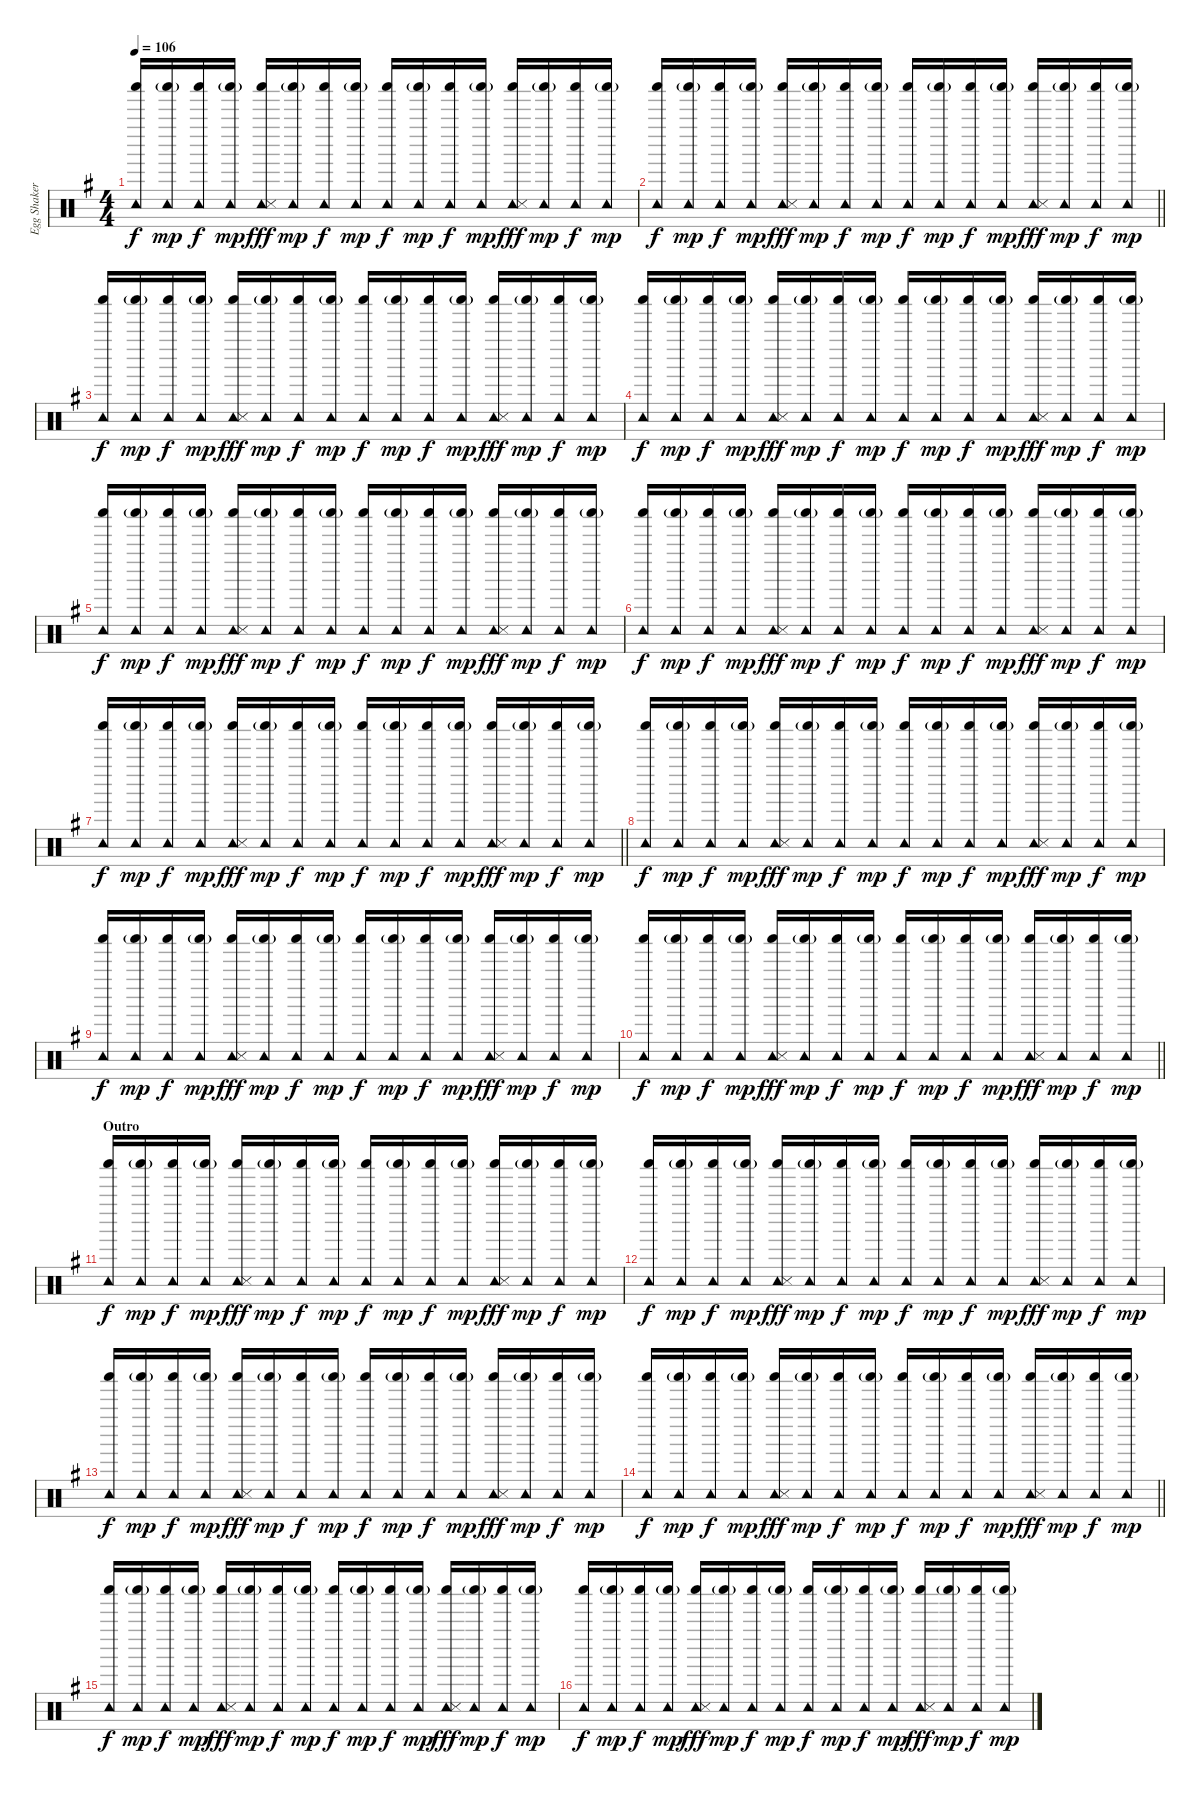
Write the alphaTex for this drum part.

\track ("Egg Shaker and Tambourine" "Egg Shaker") {instrument percussion}
\staff {score}
\articulation defaults
\ts (4 4)
\tempo 106
\clef neutral
\ks eminor
("Tambourine (hit)" "Shaker (hit)").16{dy f beam Up} ("Tambourine (hit)" "Shaker (hit)"{g}).16{dy mp beam Up} ("Tambourine (hit)" "Shaker (hit)").16{dy f beam Up} ("Tambourine (hit)" "Shaker (hit)"{g}).16{dy mp beam Up} ("Tambourine (hit)" "Shaker (hit)" "Snare (side stick) 3").16{dy fff beam Up} ("Tambourine (hit)" "Shaker (hit)"{g}).16{dy mp beam Up} ("Tambourine (hit)" "Shaker (hit)").16{dy f beam Up} ("Tambourine (hit)" "Shaker (hit)"{g}).16{dy mp beam Up} ("Tambourine (hit)" "Shaker (hit)").16{dy f beam Up} ("Tambourine (hit)" "Shaker (hit)"{g}).16{dy mp beam Up} ("Tambourine (hit)" "Shaker (hit)").16{dy f beam Up} ("Tambourine (hit)" "Shaker (hit)"{g}).16{dy mp beam Up} ("Tambourine (hit)" "Shaker (hit)" "Snare (side stick) 3").16{dy fff beam Up} ("Tambourine (hit)" "Shaker (hit)"{g}).16{dy mp beam Up} ("Tambourine (hit)" "Shaker (hit)").16{dy f beam Up} ("Tambourine (hit)" "Shaker (hit)"{g}).16{dy mp beam Up} |
\barLineRight lightlight
("Tambourine (hit)" "Shaker (hit)").16{dy f beam Up} ("Tambourine (hit)" "Shaker (hit)"{g}).16{dy mp beam Up} ("Tambourine (hit)" "Shaker (hit)").16{dy f beam Up} ("Tambourine (hit)" "Shaker (hit)"{g}).16{dy mp beam Up} ("Tambourine (hit)" "Shaker (hit)" "Snare (side stick) 3").16{dy fff beam Up} ("Tambourine (hit)" "Shaker (hit)"{g}).16{dy mp beam Up} ("Tambourine (hit)" "Shaker (hit)").16{dy f beam Up} ("Tambourine (hit)" "Shaker (hit)"{g}).16{dy mp beam Up} ("Tambourine (hit)" "Shaker (hit)").16{dy f beam Up} ("Tambourine (hit)" "Shaker (hit)"{g}).16{dy mp beam Up} ("Tambourine (hit)" "Shaker (hit)").16{dy f beam Up} ("Tambourine (hit)" "Shaker (hit)"{g}).16{dy mp beam Up} ("Tambourine (hit)" "Shaker (hit)" "Snare (side stick) 3").16{dy fff beam Up} ("Tambourine (hit)" "Shaker (hit)"{g}).16{dy mp beam Up} ("Tambourine (hit)" "Shaker (hit)").16{dy f beam Up} ("Tambourine (hit)" "Shaker (hit)"{g}).16{dy mp beam Up} |
("Tambourine (hit)" "Shaker (hit)").16{dy f beam Up} ("Tambourine (hit)" "Shaker (hit)"{g}).16{dy mp beam Up} ("Tambourine (hit)" "Shaker (hit)").16{dy f beam Up} ("Tambourine (hit)" "Shaker (hit)"{g}).16{dy mp beam Up} ("Tambourine (hit)" "Shaker (hit)" "Snare (side stick) 3").16{dy fff beam Up} ("Tambourine (hit)" "Shaker (hit)"{g}).16{dy mp beam Up} ("Tambourine (hit)" "Shaker (hit)").16{dy f beam Up} ("Tambourine (hit)" "Shaker (hit)"{g}).16{dy mp beam Up} ("Tambourine (hit)" "Shaker (hit)").16{dy f beam Up} ("Tambourine (hit)" "Shaker (hit)"{g}).16{dy mp beam Up} ("Tambourine (hit)" "Shaker (hit)").16{dy f beam Up} ("Tambourine (hit)" "Shaker (hit)"{g}).16{dy mp beam Up} ("Tambourine (hit)" "Shaker (hit)" "Snare (side stick) 3").16{dy fff beam Up} ("Tambourine (hit)" "Shaker (hit)"{g}).16{dy mp beam Up} ("Tambourine (hit)" "Shaker (hit)").16{dy f beam Up} ("Tambourine (hit)" "Shaker (hit)"{g}).16{dy mp beam Up} |
("Tambourine (hit)" "Shaker (hit)").16{dy f beam Up} ("Tambourine (hit)" "Shaker (hit)"{g}).16{dy mp beam Up} ("Tambourine (hit)" "Shaker (hit)").16{dy f beam Up} ("Tambourine (hit)" "Shaker (hit)"{g}).16{dy mp beam Up} ("Tambourine (hit)" "Shaker (hit)" "Snare (side stick) 3").16{dy fff beam Up} ("Tambourine (hit)" "Shaker (hit)"{g}).16{dy mp beam Up} ("Tambourine (hit)" "Shaker (hit)").16{dy f beam Up} ("Tambourine (hit)" "Shaker (hit)"{g}).16{dy mp beam Up} ("Tambourine (hit)" "Shaker (hit)").16{dy f beam Up} ("Tambourine (hit)" "Shaker (hit)"{g}).16{dy mp beam Up} ("Tambourine (hit)" "Shaker (hit)").16{dy f beam Up} ("Tambourine (hit)" "Shaker (hit)"{g}).16{dy mp beam Up} ("Tambourine (hit)" "Shaker (hit)" "Snare (side stick) 3").16{dy fff beam Up} ("Tambourine (hit)" "Shaker (hit)"{g}).16{dy mp beam Up} ("Tambourine (hit)" "Shaker (hit)").16{dy f beam Up} ("Tambourine (hit)" "Shaker (hit)"{g}).16{dy mp beam Up} |
("Tambourine (hit)" "Shaker (hit)").16{dy f beam Up} ("Tambourine (hit)" "Shaker (hit)"{g}).16{dy mp beam Up} ("Tambourine (hit)" "Shaker (hit)").16{dy f beam Up} ("Tambourine (hit)" "Shaker (hit)"{g}).16{dy mp beam Up} ("Tambourine (hit)" "Shaker (hit)" "Snare (side stick) 3").16{dy fff beam Up} ("Tambourine (hit)" "Shaker (hit)"{g}).16{dy mp beam Up} ("Tambourine (hit)" "Shaker (hit)").16{dy f beam Up} ("Tambourine (hit)" "Shaker (hit)"{g}).16{dy mp beam Up} ("Tambourine (hit)" "Shaker (hit)").16{dy f beam Up} ("Tambourine (hit)" "Shaker (hit)"{g}).16{dy mp beam Up} ("Tambourine (hit)" "Shaker (hit)").16{dy f beam Up} ("Tambourine (hit)" "Shaker (hit)"{g}).16{dy mp beam Up} ("Tambourine (hit)" "Shaker (hit)" "Snare (side stick) 3").16{dy fff beam Up} ("Tambourine (hit)" "Shaker (hit)"{g}).16{dy mp beam Up} ("Tambourine (hit)" "Shaker (hit)").16{dy f beam Up} ("Tambourine (hit)" "Shaker (hit)"{g}).16{dy mp beam Up} |
("Tambourine (hit)" "Shaker (hit)").16{dy f beam Up} ("Tambourine (hit)" "Shaker (hit)"{g}).16{dy mp beam Up} ("Tambourine (hit)" "Shaker (hit)").16{dy f beam Up} ("Tambourine (hit)" "Shaker (hit)"{g}).16{dy mp beam Up} ("Tambourine (hit)" "Shaker (hit)" "Snare (side stick) 3").16{dy fff beam Up} ("Tambourine (hit)" "Shaker (hit)"{g}).16{dy mp beam Up} ("Tambourine (hit)" "Shaker (hit)").16{dy f beam Up} ("Tambourine (hit)" "Shaker (hit)"{g}).16{dy mp beam Up} ("Tambourine (hit)" "Shaker (hit)").16{dy f beam Up} ("Tambourine (hit)" "Shaker (hit)"{g}).16{dy mp beam Up} ("Tambourine (hit)" "Shaker (hit)").16{dy f beam Up} ("Tambourine (hit)" "Shaker (hit)"{g}).16{dy mp beam Up} ("Tambourine (hit)" "Shaker (hit)" "Snare (side stick) 3").16{dy fff beam Up} ("Tambourine (hit)" "Shaker (hit)"{g}).16{dy mp beam Up} ("Tambourine (hit)" "Shaker (hit)").16{dy f beam Up} ("Tambourine (hit)" "Shaker (hit)"{g}).16{dy mp beam Up} |
\barLineRight lightlight
("Tambourine (hit)" "Shaker (hit)").16{dy f beam Up} ("Tambourine (hit)" "Shaker (hit)"{g}).16{dy mp beam Up} ("Tambourine (hit)" "Shaker (hit)").16{dy f beam Up} ("Tambourine (hit)" "Shaker (hit)"{g}).16{dy mp beam Up} ("Tambourine (hit)" "Shaker (hit)" "Snare (side stick) 3").16{dy fff beam Up} ("Tambourine (hit)" "Shaker (hit)"{g}).16{dy mp beam Up} ("Tambourine (hit)" "Shaker (hit)").16{dy f beam Up} ("Tambourine (hit)" "Shaker (hit)"{g}).16{dy mp beam Up} ("Tambourine (hit)" "Shaker (hit)").16{dy f beam Up} ("Tambourine (hit)" "Shaker (hit)"{g}).16{dy mp beam Up} ("Tambourine (hit)" "Shaker (hit)").16{dy f beam Up} ("Tambourine (hit)" "Shaker (hit)"{g}).16{dy mp beam Up} ("Tambourine (hit)" "Shaker (hit)" "Snare (side stick) 3").16{dy fff beam Up} ("Tambourine (hit)" "Shaker (hit)"{g}).16{dy mp beam Up} ("Tambourine (hit)" "Shaker (hit)").16{dy f beam Up} ("Tambourine (hit)" "Shaker (hit)"{g}).16{dy mp beam Up} |
("Tambourine (hit)" "Shaker (hit)").16{dy f beam Up} ("Tambourine (hit)" "Shaker (hit)"{g}).16{dy mp beam Up} ("Tambourine (hit)" "Shaker (hit)").16{dy f beam Up} ("Tambourine (hit)" "Shaker (hit)"{g}).16{dy mp beam Up} ("Tambourine (hit)" "Shaker (hit)" "Snare (side stick) 3").16{dy fff beam Up} ("Tambourine (hit)" "Shaker (hit)"{g}).16{dy mp beam Up} ("Tambourine (hit)" "Shaker (hit)").16{dy f beam Up} ("Tambourine (hit)" "Shaker (hit)"{g}).16{dy mp beam Up} ("Tambourine (hit)" "Shaker (hit)").16{dy f beam Up} ("Tambourine (hit)" "Shaker (hit)"{g}).16{dy mp beam Up} ("Tambourine (hit)" "Shaker (hit)").16{dy f beam Up} ("Tambourine (hit)" "Shaker (hit)"{g}).16{dy mp beam Up} ("Tambourine (hit)" "Shaker (hit)" "Snare (side stick) 3").16{dy fff beam Up} ("Tambourine (hit)" "Shaker (hit)"{g}).16{dy mp beam Up} ("Tambourine (hit)" "Shaker (hit)").16{dy f beam Up} ("Tambourine (hit)" "Shaker (hit)"{g}).16{dy mp beam Up} |
("Tambourine (hit)" "Shaker (hit)").16{dy f beam Up} ("Tambourine (hit)" "Shaker (hit)"{g}).16{dy mp beam Up} ("Tambourine (hit)" "Shaker (hit)").16{dy f beam Up} ("Tambourine (hit)" "Shaker (hit)"{g}).16{dy mp beam Up} ("Tambourine (hit)" "Shaker (hit)" "Snare (side stick) 3").16{dy fff beam Up} ("Tambourine (hit)" "Shaker (hit)"{g}).16{dy mp beam Up} ("Tambourine (hit)" "Shaker (hit)").16{dy f beam Up} ("Tambourine (hit)" "Shaker (hit)"{g}).16{dy mp beam Up} ("Tambourine (hit)" "Shaker (hit)").16{dy f beam Up} ("Tambourine (hit)" "Shaker (hit)"{g}).16{dy mp beam Up} ("Tambourine (hit)" "Shaker (hit)").16{dy f beam Up} ("Tambourine (hit)" "Shaker (hit)"{g}).16{dy mp beam Up} ("Tambourine (hit)" "Shaker (hit)" "Snare (side stick) 3").16{dy fff beam Up} ("Tambourine (hit)" "Shaker (hit)"{g}).16{dy mp beam Up} ("Tambourine (hit)" "Shaker (hit)").16{dy f beam Up} ("Tambourine (hit)" "Shaker (hit)"{g}).16{dy mp beam Up} |
\barLineRight lightlight
("Tambourine (hit)" "Shaker (hit)").16{dy f beam Up} ("Tambourine (hit)" "Shaker (hit)"{g}).16{dy mp beam Up} ("Tambourine (hit)" "Shaker (hit)").16{dy f beam Up} ("Tambourine (hit)" "Shaker (hit)"{g}).16{dy mp beam Up} ("Tambourine (hit)" "Shaker (hit)" "Snare (side stick) 3").16{dy fff beam Up} ("Tambourine (hit)" "Shaker (hit)"{g}).16{dy mp beam Up} ("Tambourine (hit)" "Shaker (hit)").16{dy f beam Up} ("Tambourine (hit)" "Shaker (hit)"{g}).16{dy mp beam Up} ("Tambourine (hit)" "Shaker (hit)").16{dy f beam Up} ("Tambourine (hit)" "Shaker (hit)"{g}).16{dy mp beam Up} ("Tambourine (hit)" "Shaker (hit)").16{dy f beam Up} ("Tambourine (hit)" "Shaker (hit)"{g}).16{dy mp beam Up} ("Tambourine (hit)" "Shaker (hit)" "Snare (side stick) 3").16{dy fff beam Up} ("Tambourine (hit)" "Shaker (hit)"{g}).16{dy mp beam Up} ("Tambourine (hit)" "Shaker (hit)").16{dy f beam Up} ("Tambourine (hit)" "Shaker (hit)"{g}).16{dy mp beam Up} |
\section ("" "Outro")
("Tambourine (hit)" "Shaker (hit)").16{dy f beam Up} ("Tambourine (hit)" "Shaker (hit)"{g}).16{dy mp beam Up} ("Tambourine (hit)" "Shaker (hit)").16{dy f beam Up} ("Tambourine (hit)" "Shaker (hit)"{g}).16{dy mp beam Up} ("Tambourine (hit)" "Shaker (hit)" "Snare (side stick) 3").16{dy fff beam Up} ("Tambourine (hit)" "Shaker (hit)"{g}).16{dy mp beam Up} ("Tambourine (hit)" "Shaker (hit)").16{dy f beam Up} ("Tambourine (hit)" "Shaker (hit)"{g}).16{dy mp beam Up} ("Tambourine (hit)" "Shaker (hit)").16{dy f beam Up} ("Tambourine (hit)" "Shaker (hit)"{g}).16{dy mp beam Up} ("Tambourine (hit)" "Shaker (hit)").16{dy f beam Up} ("Tambourine (hit)" "Shaker (hit)"{g}).16{dy mp beam Up} ("Tambourine (hit)" "Shaker (hit)" "Snare (side stick) 3").16{dy fff beam Up} ("Tambourine (hit)" "Shaker (hit)"{g}).16{dy mp beam Up} ("Tambourine (hit)" "Shaker (hit)").16{dy f beam Up} ("Tambourine (hit)" "Shaker (hit)"{g}).16{dy mp beam Up} |
("Tambourine (hit)" "Shaker (hit)").16{dy f beam Up} ("Tambourine (hit)" "Shaker (hit)"{g}).16{dy mp beam Up} ("Tambourine (hit)" "Shaker (hit)").16{dy f beam Up} ("Tambourine (hit)" "Shaker (hit)"{g}).16{dy mp beam Up} ("Tambourine (hit)" "Shaker (hit)" "Snare (side stick) 3").16{dy fff beam Up} ("Tambourine (hit)" "Shaker (hit)"{g}).16{dy mp beam Up} ("Tambourine (hit)" "Shaker (hit)").16{dy f beam Up} ("Tambourine (hit)" "Shaker (hit)"{g}).16{dy mp beam Up} ("Tambourine (hit)" "Shaker (hit)").16{dy f beam Up} ("Tambourine (hit)" "Shaker (hit)"{g}).16{dy mp beam Up} ("Tambourine (hit)" "Shaker (hit)").16{dy f beam Up} ("Tambourine (hit)" "Shaker (hit)"{g}).16{dy mp beam Up} ("Tambourine (hit)" "Shaker (hit)" "Snare (side stick) 3").16{dy fff beam Up} ("Tambourine (hit)" "Shaker (hit)"{g}).16{dy mp beam Up} ("Tambourine (hit)" "Shaker (hit)").16{dy f beam Up} ("Tambourine (hit)" "Shaker (hit)"{g}).16{dy mp beam Up} |
("Tambourine (hit)" "Shaker (hit)").16{dy f beam Up} ("Tambourine (hit)" "Shaker (hit)"{g}).16{dy mp beam Up} ("Tambourine (hit)" "Shaker (hit)").16{dy f beam Up} ("Tambourine (hit)" "Shaker (hit)"{g}).16{dy mp beam Up} ("Tambourine (hit)" "Shaker (hit)" "Snare (side stick) 3").16{dy fff beam Up} ("Tambourine (hit)" "Shaker (hit)"{g}).16{dy mp beam Up} ("Tambourine (hit)" "Shaker (hit)").16{dy f beam Up} ("Tambourine (hit)" "Shaker (hit)"{g}).16{dy mp beam Up} ("Tambourine (hit)" "Shaker (hit)").16{dy f beam Up} ("Tambourine (hit)" "Shaker (hit)"{g}).16{dy mp beam Up} ("Tambourine (hit)" "Shaker (hit)").16{dy f beam Up} ("Tambourine (hit)" "Shaker (hit)"{g}).16{dy mp beam Up} ("Tambourine (hit)" "Shaker (hit)" "Snare (side stick) 3").16{dy fff beam Up} ("Tambourine (hit)" "Shaker (hit)"{g}).16{dy mp beam Up} ("Tambourine (hit)" "Shaker (hit)").16{dy f beam Up} ("Tambourine (hit)" "Shaker (hit)"{g}).16{dy mp beam Up} |
\barLineRight lightlight
("Tambourine (hit)" "Shaker (hit)").16{dy f beam Up} ("Tambourine (hit)" "Shaker (hit)"{g}).16{dy mp beam Up} ("Tambourine (hit)" "Shaker (hit)").16{dy f beam Up} ("Tambourine (hit)" "Shaker (hit)"{g}).16{dy mp beam Up} ("Tambourine (hit)" "Shaker (hit)" "Snare (side stick) 3").16{dy fff beam Up} ("Tambourine (hit)" "Shaker (hit)"{g}).16{dy mp beam Up} ("Tambourine (hit)" "Shaker (hit)").16{dy f beam Up} ("Tambourine (hit)" "Shaker (hit)"{g}).16{dy mp beam Up} ("Tambourine (hit)" "Shaker (hit)").16{dy f beam Up} ("Tambourine (hit)" "Shaker (hit)"{g}).16{dy mp beam Up} ("Tambourine (hit)" "Shaker (hit)").16{dy f beam Up} ("Tambourine (hit)" "Shaker (hit)"{g}).16{dy mp beam Up} ("Tambourine (hit)" "Shaker (hit)" "Snare (side stick) 3").16{dy fff beam Up} ("Tambourine (hit)" "Shaker (hit)"{g}).16{dy mp beam Up} ("Tambourine (hit)" "Shaker (hit)").16{dy f beam Up} ("Tambourine (hit)" "Shaker (hit)"{g}).16{dy mp beam Up} |
("Tambourine (hit)" "Shaker (hit)").16{dy f beam Up} ("Tambourine (hit)" "Shaker (hit)"{g}).16{dy mp beam Up} ("Tambourine (hit)" "Shaker (hit)").16{dy f beam Up} ("Tambourine (hit)" "Shaker (hit)"{g}).16{dy mp beam Up} ("Tambourine (hit)" "Shaker (hit)" "Snare (side stick) 3").16{dy fff beam Up} ("Tambourine (hit)" "Shaker (hit)"{g}).16{dy mp beam Up} ("Tambourine (hit)" "Shaker (hit)").16{dy f beam Up} ("Tambourine (hit)" "Shaker (hit)"{g}).16{dy mp beam Up} ("Tambourine (hit)" "Shaker (hit)").16{dy f beam Up} ("Tambourine (hit)" "Shaker (hit)"{g}).16{dy mp beam Up} ("Tambourine (hit)" "Shaker (hit)").16{dy f beam Up} ("Tambourine (hit)" "Shaker (hit)"{g}).16{dy mp beam Up} ("Tambourine (hit)" "Shaker (hit)" "Snare (side stick) 3").16{dy fff beam Up} ("Tambourine (hit)" "Shaker (hit)"{g}).16{dy mp beam Up} ("Tambourine (hit)" "Shaker (hit)").16{dy f beam Up} ("Tambourine (hit)" "Shaker (hit)"{g}).16{dy mp beam Up} |
("Tambourine (hit)" "Shaker (hit)").16{dy f beam Up} ("Tambourine (hit)" "Shaker (hit)"{g}).16{dy mp beam Up} ("Tambourine (hit)" "Shaker (hit)").16{dy f beam Up} ("Tambourine (hit)" "Shaker (hit)"{g}).16{dy mp beam Up} ("Tambourine (hit)" "Shaker (hit)" "Snare (side stick) 3").16{dy fff beam Up} ("Tambourine (hit)" "Shaker (hit)"{g}).16{dy mp beam Up} ("Tambourine (hit)" "Shaker (hit)").16{dy f beam Up} ("Tambourine (hit)" "Shaker (hit)"{g}).16{dy mp beam Up} ("Tambourine (hit)" "Shaker (hit)").16{dy f beam Up} ("Tambourine (hit)" "Shaker (hit)"{g}).16{dy mp beam Up} ("Tambourine (hit)" "Shaker (hit)").16{dy f beam Up} ("Tambourine (hit)" "Shaker (hit)"{g}).16{dy mp beam Up} ("Tambourine (hit)" "Shaker (hit)" "Snare (side stick) 3").16{dy fff beam Up} ("Tambourine (hit)" "Shaker (hit)"{g}).16{dy mp beam Up} ("Tambourine (hit)" "Shaker (hit)").16{dy f beam Up} ("Tambourine (hit)" "Shaker (hit)"{g}).16{dy mp beam Up}
